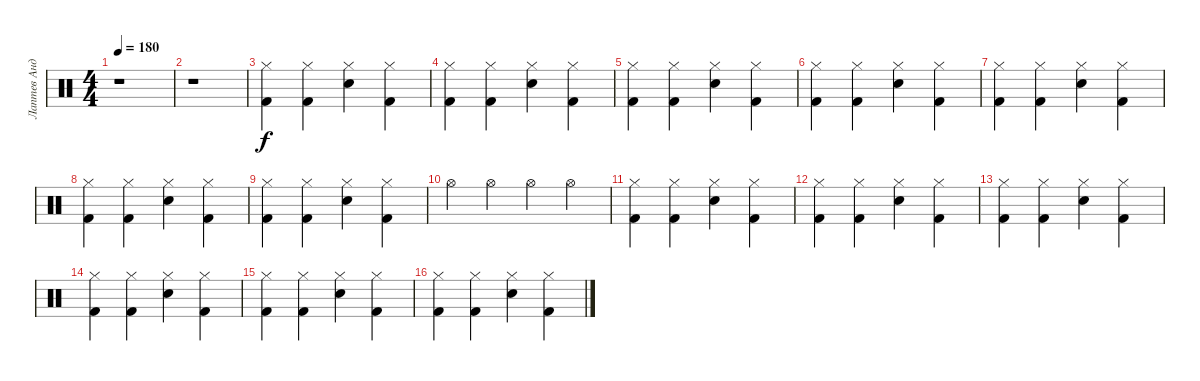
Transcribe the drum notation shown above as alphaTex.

\track ("Лаптев Андрей" "Лаптев Анд") {instrument percussion}
\staff {score}
\articulation defaults
\ts (4 4)
\tempo 180
\clef neutral
\ks c
r.1{dy f} |
r.1 |
("Kick (hit) 2" "Hi-Hat (closed)").4 ("Kick (hit) 2" "Hi-Hat (closed)").4 ("Snare (hit) 2" "Hi-Hat (closed)").4 ("Kick (hit) 2" "Hi-Hat (closed)").4 |
("Kick (hit) 2" "Hi-Hat (closed)").4 ("Kick (hit) 2" "Hi-Hat (closed)").4 ("Snare (hit) 2" "Hi-Hat (closed)").4 ("Kick (hit) 2" "Hi-Hat (closed)").4 |
("Kick (hit) 2" "Hi-Hat (closed)").4 ("Kick (hit) 2" "Hi-Hat (closed)").4 ("Snare (hit) 2" "Hi-Hat (closed)").4 ("Kick (hit) 2" "Hi-Hat (closed)").4 |
("Kick (hit) 2" "Hi-Hat (closed)").4 ("Kick (hit) 2" "Hi-Hat (closed)").4 ("Snare (hit) 2" "Hi-Hat (closed)").4 ("Kick (hit) 2" "Hi-Hat (closed)").4 |
("Kick (hit) 2" "Hi-Hat (closed)").4 ("Kick (hit) 2" "Hi-Hat (closed)").4 ("Snare (hit) 2" "Hi-Hat (closed)").4 ("Kick (hit) 2" "Hi-Hat (closed)").4 |
("Kick (hit) 2" "Hi-Hat (closed)").4 ("Kick (hit) 2" "Hi-Hat (closed)").4 ("Snare (hit) 2" "Hi-Hat (closed)").4 ("Kick (hit) 2" "Hi-Hat (closed)").4 |
("Kick (hit) 2" "Hi-Hat (closed)").4 ("Kick (hit) 2" "Hi-Hat (closed)").4 ("Snare (hit) 2" "Hi-Hat (closed)").4 ("Kick (hit) 2" "Hi-Hat (closed)").4 |
"Hi-Hat (open)".4 "Hi-Hat (open)".4 "Hi-Hat (open)".4 "Hi-Hat (open)".4 |
("Kick (hit) 2" "Hi-Hat (closed)").4 ("Kick (hit) 2" "Hi-Hat (closed)").4 ("Snare (hit) 2" "Hi-Hat (closed)").4 ("Kick (hit) 2" "Hi-Hat (closed)").4 |
("Kick (hit) 2" "Hi-Hat (closed)").4 ("Kick (hit) 2" "Hi-Hat (closed)").4 ("Snare (hit) 2" "Hi-Hat (closed)").4 ("Kick (hit) 2" "Hi-Hat (closed)").4 |
("Kick (hit) 2" "Hi-Hat (closed)").4 ("Kick (hit) 2" "Hi-Hat (closed)").4 ("Snare (hit) 2" "Hi-Hat (closed)").4 ("Kick (hit) 2" "Hi-Hat (closed)").4 |
("Kick (hit) 2" "Hi-Hat (closed)").4 ("Kick (hit) 2" "Hi-Hat (closed)").4 ("Snare (hit) 2" "Hi-Hat (closed)").4 ("Kick (hit) 2" "Hi-Hat (closed)").4 |
("Kick (hit) 2" "Hi-Hat (closed)").4 ("Kick (hit) 2" "Hi-Hat (closed)").4 ("Snare (hit) 2" "Hi-Hat (closed)").4 ("Kick (hit) 2" "Hi-Hat (closed)").4 |
("Kick (hit) 2" "Hi-Hat (closed)").4 ("Kick (hit) 2" "Hi-Hat (closed)").4 ("Snare (hit) 2" "Hi-Hat (closed)").4 ("Kick (hit) 2" "Hi-Hat (closed)").4
